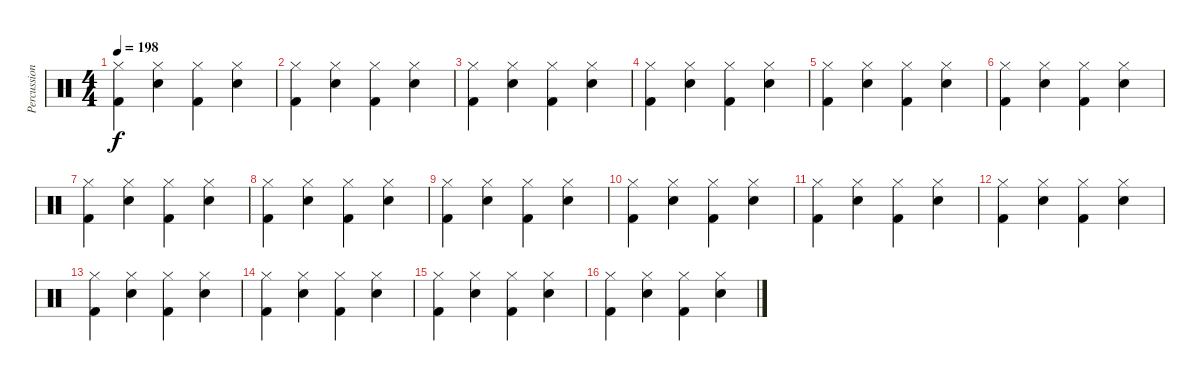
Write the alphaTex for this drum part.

\track ("Percussion" "Percussion") {instrument percussion}
\staff {score}
\articulation defaults
\ts (4 4)
\tempo 198
\clef neutral
\ks c
("Hi-Hat (closed)" "Kick (hit) 2").4{dy f} ("Hi-Hat (closed)" "Electric Snare (hit)").4 ("Hi-Hat (closed)" "Kick (hit) 2").4 ("Hi-Hat (closed)" "Electric Snare (hit)").4 |
("Hi-Hat (closed)" "Kick (hit) 2").4 ("Hi-Hat (closed)" "Electric Snare (hit)").4 ("Hi-Hat (closed)" "Kick (hit) 2").4 ("Hi-Hat (closed)" "Electric Snare (hit)").4 |
("Hi-Hat (closed)" "Kick (hit) 2").4 ("Hi-Hat (closed)" "Electric Snare (hit)").4 ("Hi-Hat (closed)" "Kick (hit) 2").4 ("Hi-Hat (closed)" "Electric Snare (hit)").4 |
("Hi-Hat (closed)" "Kick (hit) 2").4 ("Hi-Hat (closed)" "Electric Snare (hit)").4 ("Hi-Hat (closed)" "Kick (hit) 2").4 ("Hi-Hat (closed)" "Electric Snare (hit)").4 |
("Hi-Hat (closed)" "Kick (hit) 2").4 ("Hi-Hat (closed)" "Electric Snare (hit)").4 ("Hi-Hat (closed)" "Kick (hit) 2").4 ("Hi-Hat (closed)" "Electric Snare (hit)").4 |
("Hi-Hat (closed)" "Kick (hit) 2").4 ("Hi-Hat (closed)" "Electric Snare (hit)").4 ("Hi-Hat (closed)" "Kick (hit) 2").4 ("Hi-Hat (closed)" "Electric Snare (hit)").4 |
("Hi-Hat (closed)" "Kick (hit) 2").4 ("Hi-Hat (closed)" "Electric Snare (hit)").4 ("Hi-Hat (closed)" "Kick (hit) 2").4 ("Hi-Hat (closed)" "Electric Snare (hit)").4 |
("Hi-Hat (closed)" "Kick (hit) 2").4 ("Hi-Hat (closed)" "Electric Snare (hit)").4 ("Hi-Hat (closed)" "Kick (hit) 2").4 ("Hi-Hat (closed)" "Electric Snare (hit)").4 |
("Hi-Hat (closed)" "Kick (hit) 2").4 ("Hi-Hat (closed)" "Electric Snare (hit)").4 ("Hi-Hat (closed)" "Kick (hit) 2").4 ("Hi-Hat (closed)" "Electric Snare (hit)").4 |
("Hi-Hat (closed)" "Kick (hit) 2").4 ("Hi-Hat (closed)" "Electric Snare (hit)").4 ("Hi-Hat (closed)" "Kick (hit) 2").4 ("Hi-Hat (closed)" "Electric Snare (hit)").4 |
("Hi-Hat (closed)" "Kick (hit) 2").4 ("Hi-Hat (closed)" "Electric Snare (hit)").4 ("Hi-Hat (closed)" "Kick (hit) 2").4 ("Hi-Hat (closed)" "Electric Snare (hit)").4 |
("Hi-Hat (closed)" "Kick (hit) 2").4 ("Hi-Hat (closed)" "Electric Snare (hit)").4 ("Hi-Hat (closed)" "Kick (hit) 2").4 ("Hi-Hat (closed)" "Electric Snare (hit)").4 |
("Hi-Hat (closed)" "Kick (hit) 2").4 ("Hi-Hat (closed)" "Electric Snare (hit)").4 ("Hi-Hat (closed)" "Kick (hit) 2").4 ("Hi-Hat (closed)" "Electric Snare (hit)").4 |
("Hi-Hat (closed)" "Kick (hit) 2").4 ("Hi-Hat (closed)" "Electric Snare (hit)").4 ("Hi-Hat (closed)" "Kick (hit) 2").4 ("Hi-Hat (closed)" "Electric Snare (hit)").4 |
("Hi-Hat (closed)" "Kick (hit) 2").4 ("Hi-Hat (closed)" "Electric Snare (hit)").4 ("Hi-Hat (closed)" "Kick (hit) 2").4 ("Hi-Hat (closed)" "Electric Snare (hit)").4 |
("Hi-Hat (closed)" "Kick (hit) 2").4 ("Hi-Hat (closed)" "Electric Snare (hit)").4 ("Hi-Hat (closed)" "Kick (hit) 2").4 ("Hi-Hat (closed)" "Electric Snare (hit)").4
